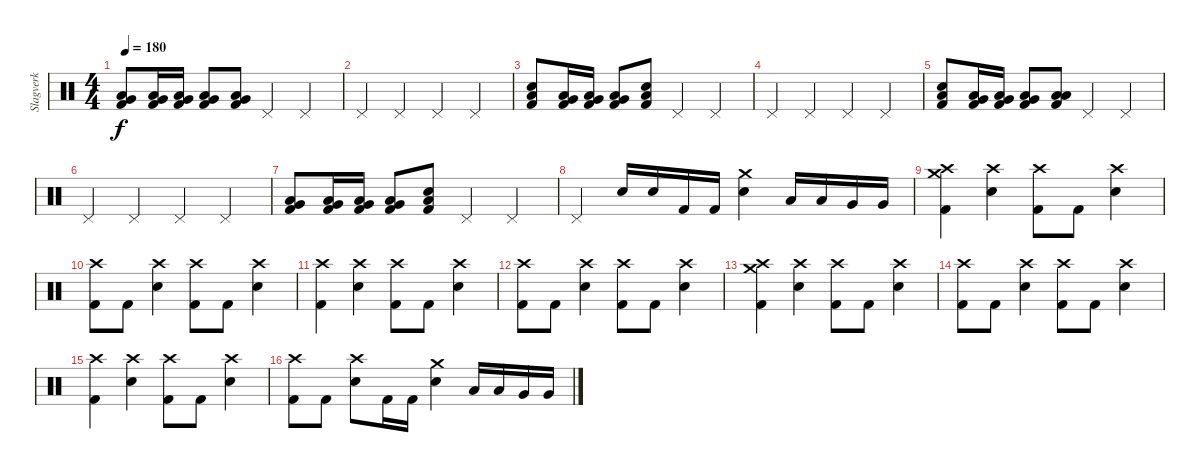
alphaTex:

\track ("Slagverk" "Slagverk") {instrument percussion}
\staff {score}
\articulation defaults
\ts (4 4)
\tempo 180
\clef neutral
\ks c
("Very Low Tom (hit)" "Low Floor Tom (hit)" "Kick (hit) 2").8{dy f} ("Very Low Tom (hit)" "Low Floor Tom (hit)" "Kick (hit) 2").16 ("Very Low Tom (hit)" "Low Floor Tom (hit)" "Kick (hit) 2").16 ("Very Low Tom (hit)" "Low Floor Tom (hit)" "Kick (hit) 2").8 ("Very Low Tom (hit)" "Low Floor Tom (hit)" "Kick (hit) 2").8 "Pedal Hi-Hat (hit)".4 "Pedal Hi-Hat (hit)".4 |
"Pedal Hi-Hat (hit)".4 "Pedal Hi-Hat (hit)".4 "Pedal Hi-Hat (hit)".4 "Pedal Hi-Hat (hit)".4 |
("Snare (hit) 2" "Low Floor Tom (hit)" "Kick (hit) 2").8 ("Very Low Tom (hit)" "Low Floor Tom (hit)" "Kick (hit) 2").16 ("Very Low Tom (hit)" "Low Floor Tom (hit)" "Kick (hit) 2").16 ("Very Low Tom (hit)" "Low Floor Tom (hit)" "Kick (hit) 2").8 ("Snare (hit) 2" "Low Floor Tom (hit)" "Kick (hit) 2").8 "Pedal Hi-Hat (hit)".4 "Pedal Hi-Hat (hit)".4 |
"Pedal Hi-Hat (hit)".4 "Pedal Hi-Hat (hit)".4 "Pedal Hi-Hat (hit)".4 "Pedal Hi-Hat (hit)".4 |
("Snare (hit) 2" "Low Floor Tom (hit)" "Kick (hit) 2").8 ("Very Low Tom (hit)" "Low Floor Tom (hit)" "Kick (hit) 2").16 ("Very Low Tom (hit)" "Low Floor Tom (hit)" "Kick (hit) 2").16 ("Very Low Tom (hit)" "Low Floor Tom (hit)" "Kick (hit) 2").8 ("Low Floor Tom (hit)" "Low Floor Tom (hit)" "Kick (hit) 2").8 "Pedal Hi-Hat (hit)".4 "Pedal Hi-Hat (hit)".4 |
"Pedal Hi-Hat (hit)".4 "Pedal Hi-Hat (hit)".4 "Pedal Hi-Hat (hit)".4 "Pedal Hi-Hat (hit)".4 |
("Very Low Tom (hit)" "Low Floor Tom (hit)" "Kick (hit) 2").8 ("Very Low Tom (hit)" "Low Floor Tom (hit)" "Kick (hit) 2").16 ("Very Low Tom (hit)" "Low Floor Tom (hit)" "Kick (hit) 2").16 ("Very Low Tom (hit)" "Low Floor Tom (hit)" "Kick (hit) 2").8 ("Snare (hit) 2" "Low Floor Tom (hit)" "Kick (hit) 2").8 "Pedal Hi-Hat (hit)".4 "Pedal Hi-Hat (hit)".4 |
"Pedal Hi-Hat (hit)".4 "Snare (hit) 2".16 "Snare (hit) 2".16 "Kick (hit) 2".16 "Kick (hit) 2".16 ("Crash medium (hit)" "Snare (hit) 2").4 "Low Tom (hit)".16 "Low Tom (hit)".16 "Very Low Tom (hit)".16 "Very Low Tom (hit)".16 |
("Crash high (hit)" "Crash medium (hit)" "Kick (hit) 2").4 ("Crash high (hit)" "Snare (hit) 2").4 ("Crash high (hit)" "Kick (hit) 2").8 "Kick (hit) 2".8 ("Crash high (hit)" "Snare (hit) 2").4 |
("Crash high (hit)" "Kick (hit) 2").8 "Kick (hit) 2".8 ("Crash high (hit)" "Snare (hit) 2").4 ("Crash high (hit)" "Kick (hit) 2").8 "Kick (hit) 2".8 ("Crash high (hit)" "Snare (hit) 2").4 |
("Crash high (hit)" "Kick (hit) 2").4 ("Crash high (hit)" "Snare (hit) 2").4 ("Crash high (hit)" "Kick (hit) 2").8 "Kick (hit) 2".8 ("Crash high (hit)" "Snare (hit) 2").4 |
("Crash high (hit)" "Kick (hit) 2").8 "Kick (hit) 2".8 ("Crash high (hit)" "Snare (hit) 2").4 ("Crash high (hit)" "Kick (hit) 2").8 "Kick (hit) 2".8 ("Crash high (hit)" "Snare (hit) 2").4 |
("Crash high (hit)" "Crash medium (hit)" "Kick (hit) 2").4 ("Crash high (hit)" "Snare (hit) 2").4 ("Crash high (hit)" "Kick (hit) 2").8 "Kick (hit) 2".8 ("Crash high (hit)" "Snare (hit) 2").4 |
("Crash high (hit)" "Kick (hit) 2").8 "Kick (hit) 2".8 ("Crash high (hit)" "Snare (hit) 2").4 ("Crash high (hit)" "Kick (hit) 2").8 "Kick (hit) 2".8 ("Crash high (hit)" "Snare (hit) 2").4 |
("Crash high (hit)" "Kick (hit) 2").4 ("Crash high (hit)" "Snare (hit) 2").4 ("Crash high (hit)" "Kick (hit) 2").8 "Kick (hit) 2".8 ("Crash high (hit)" "Snare (hit) 2").4 |
("Crash high (hit)" "Kick (hit) 2").8 "Kick (hit) 2".8 ("Crash high (hit)" "Snare (hit) 2").8 "Kick (hit) 2".16 "Kick (hit) 2".16 ("Crash medium (hit)" "Snare (hit) 2").4 "Low Tom (hit)".16 "Low Tom (hit)".16 "Very Low Tom (hit)".16 "Very Low Tom (hit)".16
